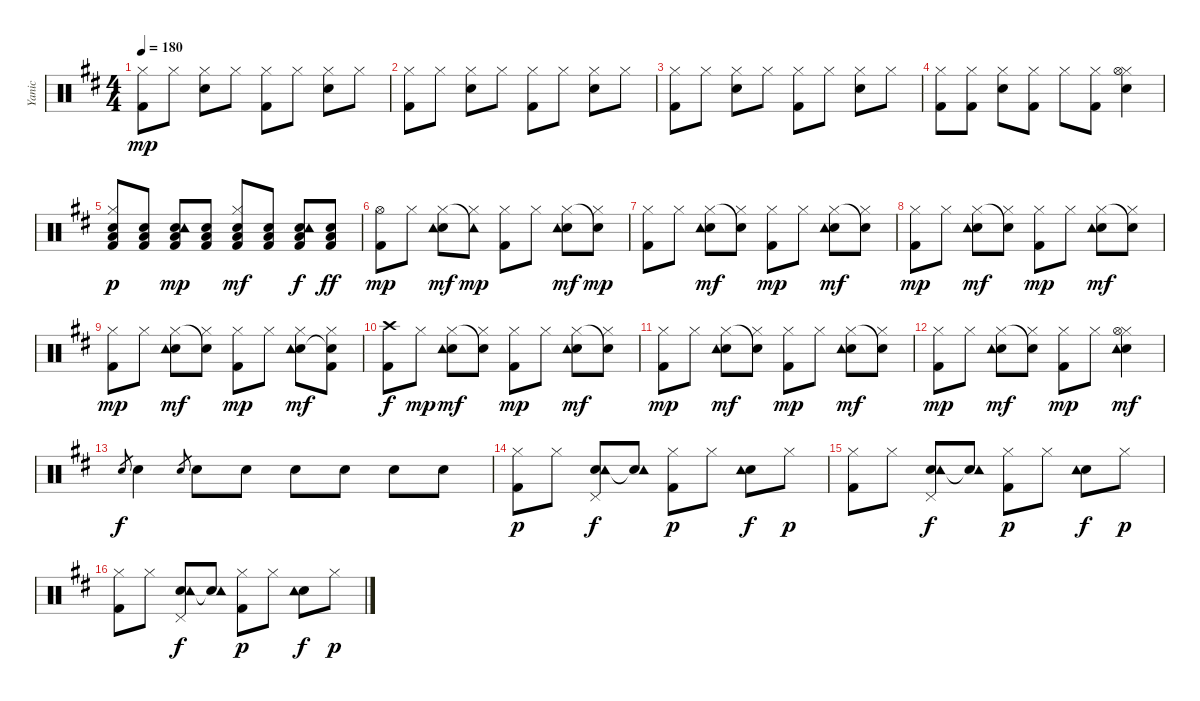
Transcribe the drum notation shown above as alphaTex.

\track ("Yanic" "Yanic") {instrument percussion}
\staff {score}
\articulation defaults
\ts (4 4)
\tempo 180
\clef neutral
\ks d
("Kick (hit) 2" "Hi-Hat (closed)").8{dy mp} "Hi-Hat (closed)".8 ("Electric Snare (hit)" "Hi-Hat (closed)").8 "Hi-Hat (closed)".8 ("Kick (hit) 2" "Hi-Hat (closed)").8 "Hi-Hat (closed)".8 ("Electric Snare (hit)" "Hi-Hat (closed)").8 "Hi-Hat (closed)".8 |
("Kick (hit) 2" "Hi-Hat (closed)").8 "Hi-Hat (closed)".8 ("Electric Snare (hit)" "Hi-Hat (closed)").8 "Hi-Hat (closed)".8 ("Kick (hit) 2" "Hi-Hat (closed)").8 "Hi-Hat (closed)".8 ("Electric Snare (hit)" "Hi-Hat (closed)").8 "Hi-Hat (closed)".8 |
("Kick (hit) 2" "Hi-Hat (closed)").8 "Hi-Hat (closed)".8 ("Electric Snare (hit)" "Hi-Hat (closed)").8 "Hi-Hat (closed)".8 ("Kick (hit) 2" "Hi-Hat (closed)").8 "Hi-Hat (closed)".8 ("Electric Snare (hit)" "Hi-Hat (closed)").8 "Hi-Hat (closed)".8 |
("Kick (hit) 2" "Hi-Hat (closed)").8 ("Kick (hit) 2" "Hi-Hat (closed)").8 ("Electric Snare (hit)" "Hi-Hat (closed)").8 ("Kick (hit) 2" "Hi-Hat (closed)").8 "Hi-Hat (closed)".8 ("Kick (hit) 2" "Hi-Hat (closed)").8 ("Electric Snare (hit)" "Hi-Hat (closed)" "Hi-Hat (open)").4 |
("Electric Snare (hit)" "Kick (hit) 2" "Low Floor Tom (hit)" "Hi-Hat (closed)").8{dy p} ("Electric Snare (hit)" "Kick (hit) 2" "Low Floor Tom (hit)").8 ("Electric Snare (hit)" "Kick (hit) 2" "Low Floor Tom (hit)" "Tambourine (hit)").8{dy mp} ("Electric Snare (hit)" "Kick (hit) 2" "Low Floor Tom (hit)").8 ("Electric Snare (hit)" "Kick (hit) 2" "Low Floor Tom (hit)" "Hi-Hat (closed)").8{dy mf} ("Electric Snare (hit)" "Kick (hit) 2" "Low Floor Tom (hit)").8 ("Electric Snare (hit)" "Kick (hit) 2" "Low Floor Tom (hit)" "Tambourine (hit)").8{dy f} ("Electric Snare (hit)" "Kick (hit) 2" "Low Floor Tom (hit)").8{dy ff} |
("Kick (hit) 2" "Hi-Hat (open)").8{dy mp} "Hi-Hat (closed)".8 ("Electric Snare (hit)" "Hi-Hat (closed)" "Tambourine (hit)").8{dy mf} ("Hi-Hat (closed)" "Tambourine (hit)"{t}).8{dy mp} ("Kick (hit) 2" "Hi-Hat (closed)").8 "Hi-Hat (closed)".8 ("Electric Snare (hit)" "Hi-Hat (closed)" "Tambourine (hit)").8{dy mf} ("Hi-Hat (closed)" "Snare (hit)"{t}).8{dy mp} |
("Kick (hit) 2" "Hi-Hat (closed)").8 "Hi-Hat (closed)".8 ("Electric Snare (hit)" "Hi-Hat (closed)" "Tambourine (hit)").8{dy mf} ("Hi-Hat (closed)" "Snare (hit)"{t}).8 ("Kick (hit) 2" "Hi-Hat (closed)").8{dy mp} "Hi-Hat (closed)".8 ("Electric Snare (hit)" "Hi-Hat (closed)" "Tambourine (hit)").8{dy mf} ("Hi-Hat (closed)" "Snare (hit)"{t}).8 |
("Kick (hit) 2" "Hi-Hat (closed)").8{dy mp} "Hi-Hat (closed)".8 ("Electric Snare (hit)" "Hi-Hat (closed)" "Tambourine (hit)").8{dy mf} ("Hi-Hat (closed)" "Snare (hit)"{t}).8 ("Kick (hit) 2" "Hi-Hat (closed)").8{dy mp} "Hi-Hat (closed)".8 ("Electric Snare (hit)" "Hi-Hat (closed)" "Tambourine (hit)").8{dy mf} ("Hi-Hat (closed)" "Snare (hit)"{t}).8 |
("Kick (hit) 2" "Hi-Hat (closed)").8{dy mp} "Hi-Hat (closed)".8 ("Electric Snare (hit)" "Hi-Hat (closed)" "Tambourine (hit)").8{dy mf} ("Hi-Hat (closed)" "Snare (hit)"{t}).8 ("Kick (hit) 2" "Hi-Hat (closed)").8{dy mp} "Hi-Hat (closed)".8 ("Electric Snare (hit)" "Hi-Hat (closed)" "Tambourine (hit)").8{dy mf} ("Kick (hit) 2" "Hi-Hat (closed)" "Snare (hit)"{t}).8 |
("Kick (hit) 2" "Crash high (hit)").8{dy f} "Hi-Hat (closed)".8{dy mp} ("Electric Snare (hit)" "Hi-Hat (closed)" "Tambourine (hit)").8{dy mf} ("Hi-Hat (closed)" "Snare (hit)"{t}).8 ("Kick (hit) 2" "Hi-Hat (closed)").8{dy mp} "Hi-Hat (closed)".8 ("Electric Snare (hit)" "Hi-Hat (closed)" "Tambourine (hit)").8{dy mf} ("Hi-Hat (closed)" "Snare (hit)"{t}).8 |
("Kick (hit) 2" "Hi-Hat (closed)").8{dy mp} "Hi-Hat (closed)".8 ("Electric Snare (hit)" "Hi-Hat (closed)" "Tambourine (hit)").8{dy mf} ("Hi-Hat (closed)" "Snare (hit)"{t}).8 ("Kick (hit) 2" "Hi-Hat (closed)").8{dy mp} "Hi-Hat (closed)".8 ("Electric Snare (hit)" "Hi-Hat (closed)" "Tambourine (hit)").8{dy mf} ("Hi-Hat (closed)" "Snare (hit)"{t}).8 |
("Kick (hit) 2" "Hi-Hat (closed)").8{dy mp} "Hi-Hat (closed)".8 ("Electric Snare (hit)" "Hi-Hat (closed)" "Tambourine (hit)").8{dy mf} ("Hi-Hat (closed)" "Snare (hit)"{t}).8 ("Kick (hit) 2" "Hi-Hat (closed)").8{dy mp} "Hi-Hat (closed)".8 ("Electric Snare (hit)" "Hi-Hat (closed)" "Tambourine (hit)" "Hi-Hat (open)").4{dy mf} |
"Electric Snare (hit)".8{gr dy f} "Electric Snare (hit)".4 "Electric Snare (hit)".8{gr} "Electric Snare (hit)".8 "Electric Snare (hit)".8 "Electric Snare (hit)".8 "Electric Snare (hit)".8 "Electric Snare (hit)".8 "Electric Snare (hit)".8 |
("Kick (hit) 2" "Hi-Hat (closed)").8{dy p} "Hi-Hat (closed)".8 ("Electric Snare (hit)" "Tambourine (hit)" "Pedal Hi-Hat (hit)").8{dy f} ("Electric Snare (hit)" "Tambourine (hit)"{t}).8 ("Kick (hit) 2" "Hi-Hat (closed)").8{dy p} "Hi-Hat (closed)".8 ("Electric Snare (hit)" "Tambourine (hit)").8{dy f} "Hi-Hat (closed)".8{dy p} |
("Kick (hit) 2" "Hi-Hat (closed)").8 "Hi-Hat (closed)".8 ("Electric Snare (hit)" "Tambourine (hit)" "Pedal Hi-Hat (hit)").8{dy f} ("Electric Snare (hit)" "Tambourine (hit)"{t}).8 ("Kick (hit) 2" "Hi-Hat (closed)").8{dy p} "Hi-Hat (closed)".8 ("Electric Snare (hit)" "Tambourine (hit)").8{dy f} "Hi-Hat (closed)".8{dy p} |
("Kick (hit) 2" "Hi-Hat (closed)").8 "Hi-Hat (closed)".8 ("Electric Snare (hit)" "Tambourine (hit)" "Pedal Hi-Hat (hit)").8{dy f} ("Electric Snare (hit)" "Tambourine (hit)"{t}).8 ("Kick (hit) 2" "Hi-Hat (closed)").8{dy p} "Hi-Hat (closed)".8 ("Electric Snare (hit)" "Tambourine (hit)").8{dy f} "Hi-Hat (closed)".8{dy p}
